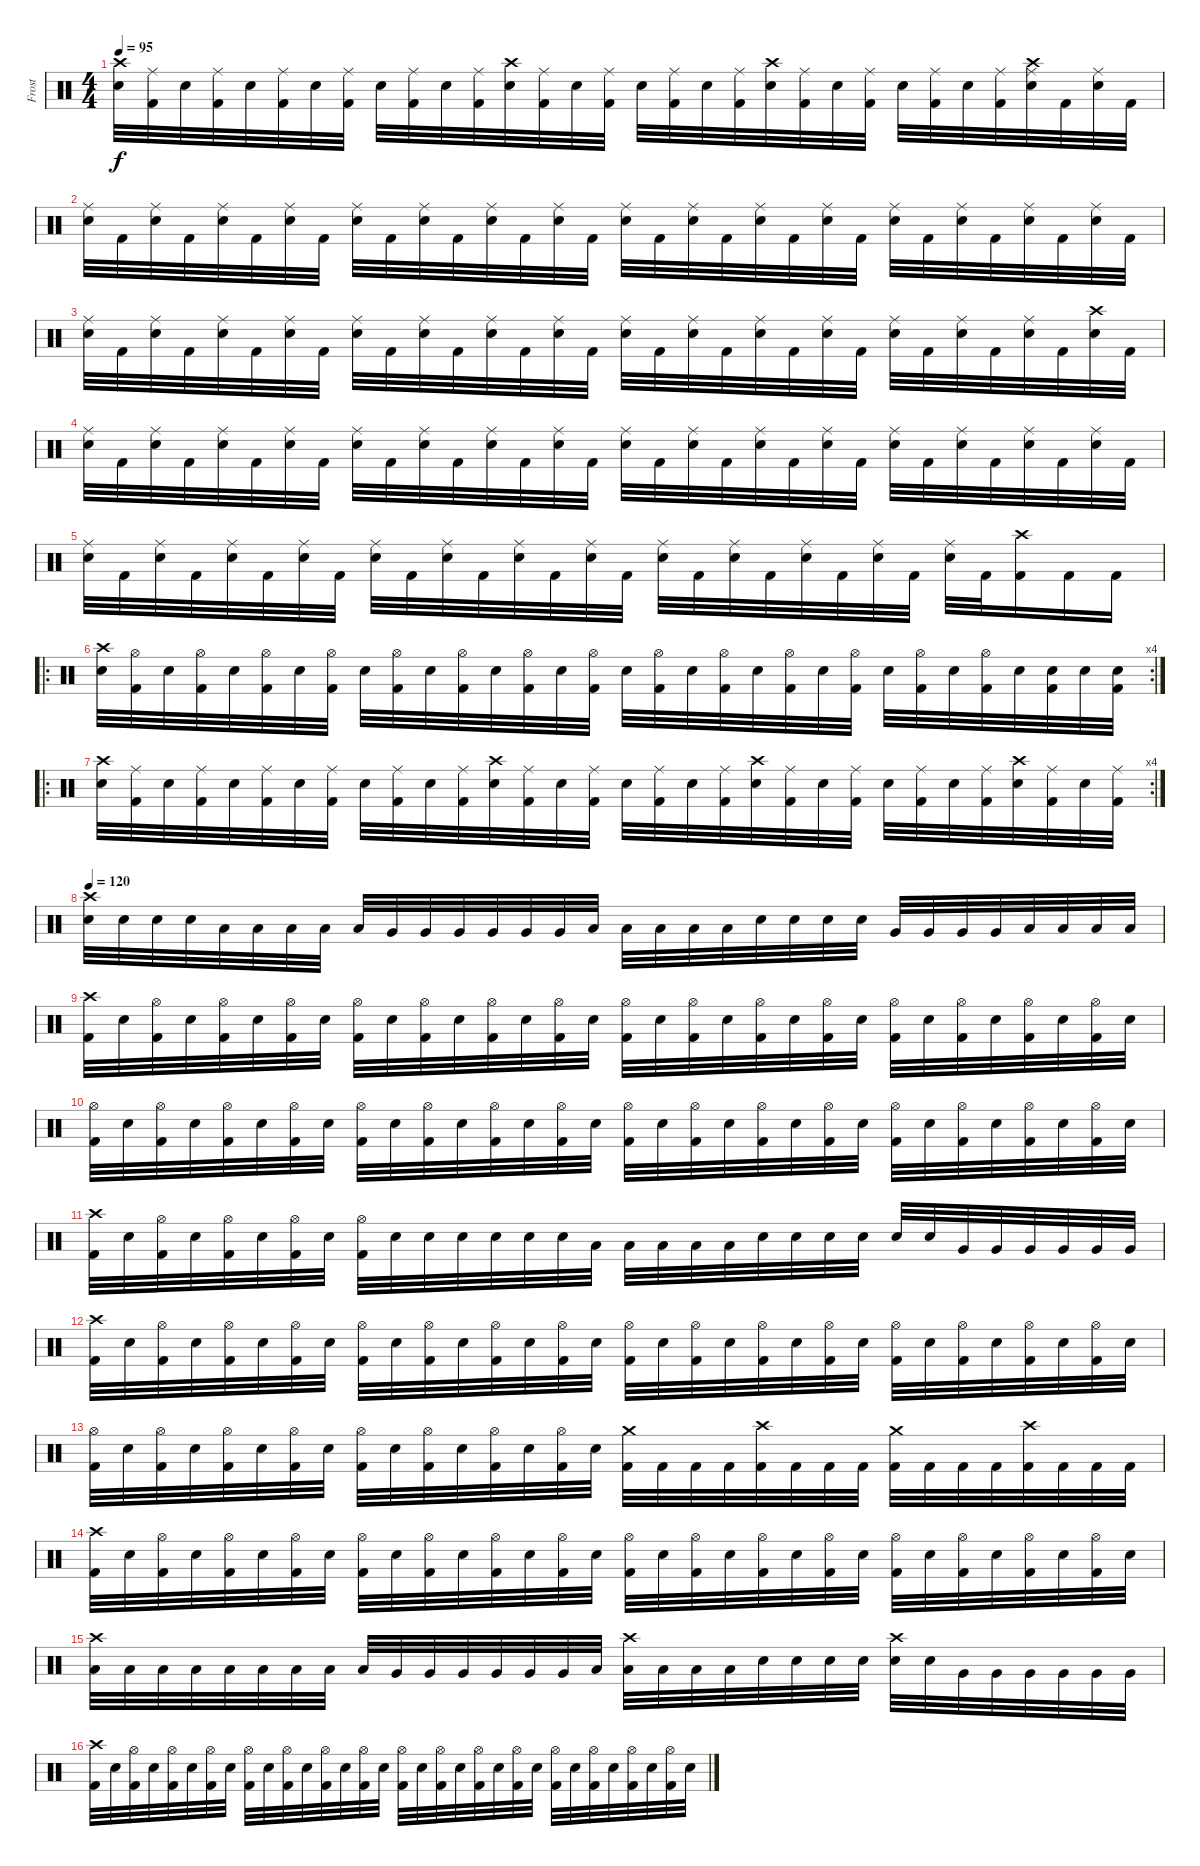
\track ("Frost" "Frost") {instrument percussion}
\staff {score}
\articulation defaults
\ts (4 4)
\tempo 95
\clef neutral
\ks c
("Crash high (hit)" "Snare (hit) 2").32{dy f} ("Ride (middle)" "Kick (hit) 2").32 "Snare (hit) 2".32 ("Ride (middle)" "Kick (hit) 2").32 "Snare (hit) 2".32 ("Ride (middle)" "Kick (hit) 2").32 "Snare (hit) 2".32 ("Ride (middle)" "Kick (hit) 2").32 "Snare (hit) 2".32 ("Ride (middle)" "Kick (hit) 2").32 "Snare (hit) 2".32 ("Ride (middle)" "Kick (hit) 2").32 ("Crash high (hit)" "Snare (hit) 2").32 ("Ride (middle)" "Kick (hit) 2").32 "Snare (hit) 2".32 ("Ride (middle)" "Kick (hit) 2").32 "Snare (hit) 2".32 ("Ride (middle)" "Kick (hit) 2").32 "Snare (hit) 2".32 ("Ride (middle)" "Kick (hit) 2").32 ("Crash high (hit)" "Snare (hit) 2").32 ("Ride (middle)" "Kick (hit) 2").32 "Snare (hit) 2".32 ("Ride (middle)" "Kick (hit) 2").32 "Snare (hit) 2".32 ("Ride (middle)" "Kick (hit) 2").32 "Snare (hit) 2".32 ("Ride (middle)" "Kick (hit) 2").32 ("Crash high (hit)" "Ride (middle)" "Snare (hit) 2").32 "Kick (hit) 2".32 ("Ride (middle)" "Snare (hit) 2").32 "Kick (hit) 2".32 |
("Ride (middle)" "Snare (hit) 2").32 "Kick (hit) 2".32 ("Ride (middle)" "Snare (hit) 2").32 "Kick (hit) 2".32 ("Ride (middle)" "Snare (hit) 2").32 "Kick (hit) 2".32 ("Ride (middle)" "Snare (hit) 2").32 "Kick (hit) 2".32 ("Ride (middle)" "Snare (hit) 2").32 "Kick (hit) 2".32 ("Ride (middle)" "Snare (hit) 2").32 "Kick (hit) 2".32 ("Ride (middle)" "Snare (hit) 2").32 "Kick (hit) 2".32 ("Ride (middle)" "Snare (hit) 2").32 "Kick (hit) 2".32 ("Ride (middle)" "Snare (hit) 2").32 "Kick (hit) 2".32 ("Ride (middle)" "Snare (hit) 2").32 "Kick (hit) 2".32 ("Ride (middle)" "Snare (hit) 2").32 "Kick (hit) 2".32 ("Ride (middle)" "Snare (hit) 2").32 "Kick (hit) 2".32 ("Ride (middle)" "Snare (hit) 2").32 "Kick (hit) 2".32 ("Ride (middle)" "Snare (hit) 2").32 "Kick (hit) 2".32 ("Ride (middle)" "Snare (hit) 2").32 "Kick (hit) 2".32 ("Ride (middle)" "Snare (hit) 2").32 "Kick (hit) 2".32 |
("Ride (middle)" "Snare (hit) 2").32 "Kick (hit) 2".32 ("Ride (middle)" "Snare (hit) 2").32 "Kick (hit) 2".32 ("Ride (middle)" "Snare (hit) 2").32 "Kick (hit) 2".32 ("Ride (middle)" "Snare (hit) 2").32 "Kick (hit) 2".32 ("Ride (middle)" "Snare (hit) 2").32 "Kick (hit) 2".32 ("Ride (middle)" "Snare (hit) 2").32 "Kick (hit) 2".32 ("Ride (middle)" "Snare (hit) 2").32 "Kick (hit) 2".32 ("Ride (middle)" "Snare (hit) 2").32 "Kick (hit) 2".32 ("Ride (middle)" "Snare (hit) 2").32 "Kick (hit) 2".32 ("Ride (middle)" "Snare (hit) 2").32 "Kick (hit) 2".32 ("Ride (middle)" "Snare (hit) 2").32 "Kick (hit) 2".32 ("Ride (middle)" "Snare (hit) 2").32 "Kick (hit) 2".32 ("Ride (middle)" "Snare (hit) 2").32 "Kick (hit) 2".32 ("Ride (middle)" "Snare (hit) 2").32 "Kick (hit) 2".32 ("Ride (middle)" "Snare (hit) 2").32 "Kick (hit) 2".32 ("Crash high (hit)" "Snare (hit) 2").32 "Kick (hit) 2".32 |
("Ride (middle)" "Snare (hit) 2").32 "Kick (hit) 2".32 ("Ride (middle)" "Snare (hit) 2").32 "Kick (hit) 2".32 ("Ride (middle)" "Snare (hit) 2").32 "Kick (hit) 2".32 ("Ride (middle)" "Snare (hit) 2").32 "Kick (hit) 2".32 ("Ride (middle)" "Snare (hit) 2").32 "Kick (hit) 2".32 ("Ride (middle)" "Snare (hit) 2").32 "Kick (hit) 2".32 ("Ride (middle)" "Snare (hit) 2").32 "Kick (hit) 2".32 ("Ride (middle)" "Snare (hit) 2").32 "Kick (hit) 2".32 ("Ride (middle)" "Snare (hit) 2").32 "Kick (hit) 2".32 ("Ride (middle)" "Snare (hit) 2").32 "Kick (hit) 2".32 ("Ride (middle)" "Snare (hit) 2").32 "Kick (hit) 2".32 ("Ride (middle)" "Snare (hit) 2").32 "Kick (hit) 2".32 ("Ride (middle)" "Snare (hit) 2").32 "Kick (hit) 2".32 ("Ride (middle)" "Snare (hit) 2").32 "Kick (hit) 2".32 ("Ride (middle)" "Snare (hit) 2").32 "Kick (hit) 2".32 ("Ride (middle)" "Snare (hit) 2").32 "Kick (hit) 2".32 |
("Ride (middle)" "Snare (hit) 2").32 "Kick (hit) 2".32 ("Ride (middle)" "Snare (hit) 2").32 "Kick (hit) 2".32 ("Ride (middle)" "Snare (hit) 2").32 "Kick (hit) 2".32 ("Ride (middle)" "Snare (hit) 2").32 "Kick (hit) 2".32 ("Ride (middle)" "Snare (hit) 2").32 "Kick (hit) 2".32 ("Ride (middle)" "Snare (hit) 2").32 "Kick (hit) 2".32 ("Ride (middle)" "Snare (hit) 2").32 "Kick (hit) 2".32 ("Ride (middle)" "Snare (hit) 2").32 "Kick (hit) 2".32 ("Ride (middle)" "Snare (hit) 2").32 "Kick (hit) 2".32 ("Ride (middle)" "Snare (hit) 2").32 "Kick (hit) 2".32 ("Ride (middle)" "Snare (hit) 2").32 "Kick (hit) 2".32 ("Ride (middle)" "Snare (hit) 2").32 "Kick (hit) 2".32 ("Ride (middle)" "Snare (hit) 2").32 "Kick (hit) 2".32 ("Crash high (hit)" "Kick (hit) 2").16 "Kick (hit) 2".16 "Kick (hit) 2".16 |
\ro
\rc 4
("Crash high (hit)" "Snare (hit) 2").32 ("Hi-Hat (open)" "Kick (hit) 2").32 "Snare (hit) 2".32 ("Hi-Hat (open)" "Kick (hit) 2").32 "Snare (hit) 2".32 ("Hi-Hat (open)" "Kick (hit) 2").32 "Snare (hit) 2".32 ("Hi-Hat (open)" "Kick (hit) 2").32 "Snare (hit) 2".32 ("Hi-Hat (open)" "Kick (hit) 2").32 "Snare (hit) 2".32 ("Hi-Hat (open)" "Kick (hit) 2").32 "Snare (hit) 2".32 ("Hi-Hat (open)" "Kick (hit) 2").32 "Snare (hit) 2".32 ("Hi-Hat (open)" "Kick (hit) 2").32 "Snare (hit) 2".32 ("Hi-Hat (open)" "Kick (hit) 2").32 "Snare (hit) 2".32 ("Hi-Hat (open)" "Kick (hit) 2").32 "Snare (hit) 2".32 ("Hi-Hat (open)" "Kick (hit) 2").32 "Snare (hit) 2".32 ("Hi-Hat (open)" "Kick (hit) 2").32 "Snare (hit) 2".32 ("Hi-Hat (open)" "Kick (hit) 2").32 "Snare (hit) 2".32 ("Hi-Hat (open)" "Kick (hit) 2").32 "Snare (hit) 2".32 ("Snare (hit) 2" "Kick (hit) 2").32 "Snare (hit) 2".32 ("Snare (hit) 2" "Kick (hit) 2").32 |
\ro
\rc 4
("Crash high (hit)" "Snare (hit) 2").32 ("Ride (middle)" "Kick (hit) 2").32 "Snare (hit) 2".32 ("Ride (middle)" "Kick (hit) 2").32 "Snare (hit) 2".32 ("Ride (middle)" "Kick (hit) 2").32 "Snare (hit) 2".32 ("Ride (middle)" "Kick (hit) 2").32 "Snare (hit) 2".32 ("Ride (middle)" "Kick (hit) 2").32 "Snare (hit) 2".32 ("Ride (middle)" "Kick (hit) 2").32 ("Crash high (hit)" "Snare (hit) 2").32 ("Ride (middle)" "Kick (hit) 2").32 "Snare (hit) 2".32 ("Ride (middle)" "Kick (hit) 2").32 "Snare (hit) 2".32 ("Ride (middle)" "Kick (hit) 2").32 "Snare (hit) 2".32 ("Ride (middle)" "Kick (hit) 2").32 ("Crash high (hit)" "Snare (hit) 2").32 ("Ride (middle)" "Kick (hit) 2").32 "Snare (hit) 2".32 ("Ride (middle)" "Kick (hit) 2").32 "Snare (hit) 2".32 ("Ride (middle)" "Kick (hit) 2").32 "Snare (hit) 2".32 ("Ride (middle)" "Kick (hit) 2").32 ("Crash high (hit)" "Snare (hit) 2").32 ("Ride (middle)" "Kick (hit) 2").32 "Snare (hit) 2".32 ("Ride (middle)" "Kick (hit) 2").32 |
\tempo 120
("Crash high (hit)" "Snare (hit) 2").32 "Snare (hit) 2".32 "Snare (hit) 2".32 "Snare (hit) 2".32 "Low Floor Tom (hit)".32 "Low Floor Tom (hit)".32 "Low Floor Tom (hit)".32 "Low Floor Tom (hit)".32 "Low Floor Tom (hit)".32 "Very Low Tom (hit)".32 "Very Low Tom (hit)".32 "Very Low Tom (hit)".32 "Very Low Tom (hit)".32 "Very Low Tom (hit)".32 "Very Low Tom (hit)".32 "Low Tom (hit)".32 "Low Tom (hit)".32 "Low Tom (hit)".32 "Low Tom (hit)".32 "Low Tom (hit)".32 "Snare (hit) 2".32 "Snare (hit) 2".32 "Snare (hit) 2".32 "Snare (hit) 2".32 "Very Low Tom (hit)".32 "Very Low Tom (hit)".32 "Very Low Tom (hit)".32 "Very Low Tom (hit)".32 "Low Floor Tom (hit)".32 "Low Floor Tom (hit)".32 "Low Floor Tom (hit)".32 "Low Floor Tom (hit)".32 |
("Crash high (hit)" "Kick (hit) 2").32 "Snare (hit) 2".32 ("Hi-Hat (open)" "Kick (hit) 2").32 "Snare (hit) 2".32 ("Hi-Hat (open)" "Kick (hit) 2").32 "Snare (hit) 2".32 ("Hi-Hat (open)" "Kick (hit) 2").32 "Snare (hit) 2".32 ("Hi-Hat (open)" "Kick (hit) 2").32 "Snare (hit) 2".32 ("Hi-Hat (open)" "Kick (hit) 2").32 "Snare (hit) 2".32 ("Hi-Hat (open)" "Kick (hit) 2").32 "Snare (hit) 2".32 ("Hi-Hat (open)" "Kick (hit) 2").32 "Snare (hit) 2".32 ("Hi-Hat (open)" "Kick (hit) 2").32 "Snare (hit) 2".32 ("Hi-Hat (open)" "Kick (hit) 2").32 "Snare (hit) 2".32 ("Hi-Hat (open)" "Kick (hit) 2").32 "Snare (hit) 2".32 ("Hi-Hat (open)" "Kick (hit) 2").32 "Snare (hit) 2".32 ("Hi-Hat (open)" "Kick (hit) 2").32 "Snare (hit) 2".32 ("Hi-Hat (open)" "Kick (hit) 2").32 "Snare (hit) 2".32 ("Hi-Hat (open)" "Kick (hit) 2").32 "Snare (hit) 2".32 ("Hi-Hat (open)" "Kick (hit) 2").32 "Snare (hit) 2".32 |
("Hi-Hat (open)" "Kick (hit) 2").32 "Snare (hit) 2".32 ("Hi-Hat (open)" "Kick (hit) 2").32 "Snare (hit) 2".32 ("Hi-Hat (open)" "Kick (hit) 2").32 "Snare (hit) 2".32 ("Hi-Hat (open)" "Kick (hit) 2").32 "Snare (hit) 2".32 ("Hi-Hat (open)" "Kick (hit) 2").32 "Snare (hit) 2".32 ("Hi-Hat (open)" "Kick (hit) 2").32 "Snare (hit) 2".32 ("Hi-Hat (open)" "Kick (hit) 2").32 "Snare (hit) 2".32 ("Hi-Hat (open)" "Kick (hit) 2").32 "Snare (hit) 2".32 ("Hi-Hat (open)" "Kick (hit) 2").32 "Snare (hit) 2".32 ("Hi-Hat (open)" "Kick (hit) 2").32 "Snare (hit) 2".32 ("Hi-Hat (open)" "Kick (hit) 2").32 "Snare (hit) 2".32 ("Hi-Hat (open)" "Kick (hit) 2").32 "Snare (hit) 2".32 ("Hi-Hat (open)" "Kick (hit) 2").32 "Snare (hit) 2".32 ("Hi-Hat (open)" "Kick (hit) 2").32 "Snare (hit) 2".32 ("Hi-Hat (open)" "Kick (hit) 2").32 "Snare (hit) 2".32 ("Hi-Hat (open)" "Kick (hit) 2").32 "Snare (hit) 2".32 |
("Crash high (hit)" "Kick (hit) 2").32 "Snare (hit) 2".32 ("Hi-Hat (open)" "Kick (hit) 2").32 "Snare (hit) 2".32 ("Hi-Hat (open)" "Kick (hit) 2").32 "Snare (hit) 2".32 ("Hi-Hat (open)" "Kick (hit) 2").32 "Snare (hit) 2".32 ("Hi-Hat (open)" "Kick (hit) 2").32 "Snare (hit) 2".32 "Snare (hit) 2".32 "Snare (hit) 2".32 "Snare (hit) 2".32 "Snare (hit) 2".32 "Snare (hit) 2".32 "Low Tom (hit)".32 "Low Tom (hit)".32 "Low Tom (hit)".32 "Low Tom (hit)".32 "Low Tom (hit)".32 "Snare (hit) 2".32 "Snare (hit) 2".32 "Snare (hit) 2".32 "Snare (hit) 2".32 "Snare (hit) 2".32 "Snare (hit) 2".32 "Very Low Tom (hit)".32 "Very Low Tom (hit)".32 "Very Low Tom (hit)".32 "Very Low Tom (hit)".32 "Very Low Tom (hit)".32 "Very Low Tom (hit)".32 |
("Crash high (hit)" "Kick (hit) 2").32 "Snare (hit) 2".32 ("Hi-Hat (open)" "Kick (hit) 2").32 "Snare (hit) 2".32 ("Hi-Hat (open)" "Kick (hit) 2").32 "Snare (hit) 2".32 ("Hi-Hat (open)" "Kick (hit) 2").32 "Snare (hit) 2".32 ("Hi-Hat (open)" "Kick (hit) 2").32 "Snare (hit) 2".32 ("Hi-Hat (open)" "Kick (hit) 2").32 "Snare (hit) 2".32 ("Hi-Hat (open)" "Kick (hit) 2").32 "Snare (hit) 2".32 ("Hi-Hat (open)" "Kick (hit) 2").32 "Snare (hit) 2".32 ("Hi-Hat (open)" "Kick (hit) 2").32 "Snare (hit) 2".32 ("Hi-Hat (open)" "Kick (hit) 2").32 "Snare (hit) 2".32 ("Hi-Hat (open)" "Kick (hit) 2").32 "Snare (hit) 2".32 ("Hi-Hat (open)" "Kick (hit) 2").32 "Snare (hit) 2".32 ("Hi-Hat (open)" "Kick (hit) 2").32 "Snare (hit) 2".32 ("Hi-Hat (open)" "Kick (hit) 2").32 "Snare (hit) 2".32 ("Hi-Hat (open)" "Kick (hit) 2").32 "Snare (hit) 2".32 ("Hi-Hat (open)" "Kick (hit) 2").32 "Snare (hit) 2".32 |
("Hi-Hat (open)" "Kick (hit) 2").32 "Snare (hit) 2".32 ("Hi-Hat (open)" "Kick (hit) 2").32 "Snare (hit) 2".32 ("Hi-Hat (open)" "Kick (hit) 2").32 "Snare (hit) 2".32 ("Hi-Hat (open)" "Kick (hit) 2").32 "Snare (hit) 2".32 ("Hi-Hat (open)" "Kick (hit) 2").32 "Snare (hit) 2".32 ("Hi-Hat (open)" "Kick (hit) 2").32 "Snare (hit) 2".32 ("Hi-Hat (open)" "Kick (hit) 2").32 "Snare (hit) 2".32 ("Hi-Hat (open)" "Kick (hit) 2").32 "Snare (hit) 2".32 ("Crash medium (hit)" "Kick (hit) 2").32 "Kick (hit) 2".32 "Kick (hit) 2".32 "Kick (hit) 2".32 ("Crash high (hit)" "Kick (hit) 2").32 "Kick (hit) 2".32 "Kick (hit) 2".32 "Kick (hit) 2".32 ("Crash medium (hit)" "Kick (hit) 2").32 "Kick (hit) 2".32 "Kick (hit) 2".32 "Kick (hit) 2".32 ("Crash high (hit)" "Kick (hit) 2").32 "Kick (hit) 2".32 "Kick (hit) 2".32 "Kick (hit) 2".32 |
("Crash high (hit)" "Kick (hit) 2").32 "Snare (hit) 2".32 ("Hi-Hat (open)" "Kick (hit) 2").32 "Snare (hit) 2".32 ("Hi-Hat (open)" "Kick (hit) 2").32 "Snare (hit) 2".32 ("Hi-Hat (open)" "Kick (hit) 2").32 "Snare (hit) 2".32 ("Hi-Hat (open)" "Kick (hit) 2").32 "Snare (hit) 2".32 ("Hi-Hat (open)" "Kick (hit) 2").32 "Snare (hit) 2".32 ("Hi-Hat (open)" "Kick (hit) 2").32 "Snare (hit) 2".32 ("Hi-Hat (open)" "Kick (hit) 2").32 "Snare (hit) 2".32 ("Hi-Hat (open)" "Kick (hit) 2").32 "Snare (hit) 2".32 ("Hi-Hat (open)" "Kick (hit) 2").32 "Snare (hit) 2".32 ("Hi-Hat (open)" "Kick (hit) 2").32 "Snare (hit) 2".32 ("Hi-Hat (open)" "Kick (hit) 2").32 "Snare (hit) 2".32 ("Hi-Hat (open)" "Kick (hit) 2").32 "Snare (hit) 2".32 ("Hi-Hat (open)" "Kick (hit) 2").32 "Snare (hit) 2".32 ("Hi-Hat (open)" "Kick (hit) 2").32 "Snare (hit) 2".32 ("Hi-Hat (open)" "Kick (hit) 2").32 "Snare (hit) 2".32 |
("Crash high (hit)" "Low Tom (hit)").32 "Low Tom (hit)".32 "Low Tom (hit)".32 "Low Floor Tom (hit)".32 "Low Floor Tom (hit)".32 "Low Floor Tom (hit)".32 "Low Floor Tom (hit)".32 "Low Floor Tom (hit)".32 "Low Floor Tom (hit)".32 "Very Low Tom (hit)".32 "Very Low Tom (hit)".32 "Very Low Tom (hit)".32 "Very Low Tom (hit)".32 "Very Low Tom (hit)".32 "Very Low Tom (hit)".32 "Low Tom (hit)".32 ("Crash high (hit)" "Low Tom (hit)").32 "Low Tom (hit)".32 "Low Tom (hit)".32 "Low Tom (hit)".32 "Snare (hit) 2".32 "Snare (hit) 2".32 "Snare (hit) 2".32 "Snare (hit) 2".32 ("Crash high (hit)" "Snare (hit) 2").32 "Snare (hit) 2".32 "Very Low Tom (hit)".32 "Very Low Tom (hit)".32 "Very Low Tom (hit)".32 "Very Low Tom (hit)".32 "Very Low Tom (hit)".32 "Very Low Tom (hit)".32 |
("Crash high (hit)" "Kick (hit) 2").32 "Snare (hit) 2".32 ("Hi-Hat (open)" "Kick (hit) 2").32 "Snare (hit) 2".32 ("Hi-Hat (open)" "Kick (hit) 2").32 "Snare (hit) 2".32 ("Hi-Hat (open)" "Kick (hit) 2").32 "Snare (hit) 2".32 ("Hi-Hat (open)" "Kick (hit) 2").32 "Snare (hit) 2".32 ("Hi-Hat (open)" "Kick (hit) 2").32 "Snare (hit) 2".32 ("Hi-Hat (open)" "Kick (hit) 2").32 "Snare (hit) 2".32 ("Hi-Hat (open)" "Kick (hit) 2").32 "Snare (hit) 2".32 ("Hi-Hat (open)" "Kick (hit) 2").32 "Snare (hit) 2".32 ("Hi-Hat (open)" "Kick (hit) 2").32 "Snare (hit) 2".32 ("Hi-Hat (open)" "Kick (hit) 2").32 "Snare (hit) 2".32 ("Hi-Hat (open)" "Kick (hit) 2").32 "Snare (hit) 2".32 ("Hi-Hat (open)" "Kick (hit) 2").32 "Snare (hit) 2".32 ("Hi-Hat (open)" "Kick (hit) 2").32 "Snare (hit) 2".32 ("Hi-Hat (open)" "Kick (hit) 2").32 "Snare (hit) 2".32 ("Hi-Hat (open)" "Kick (hit) 2").32 "Snare (hit) 2".32
